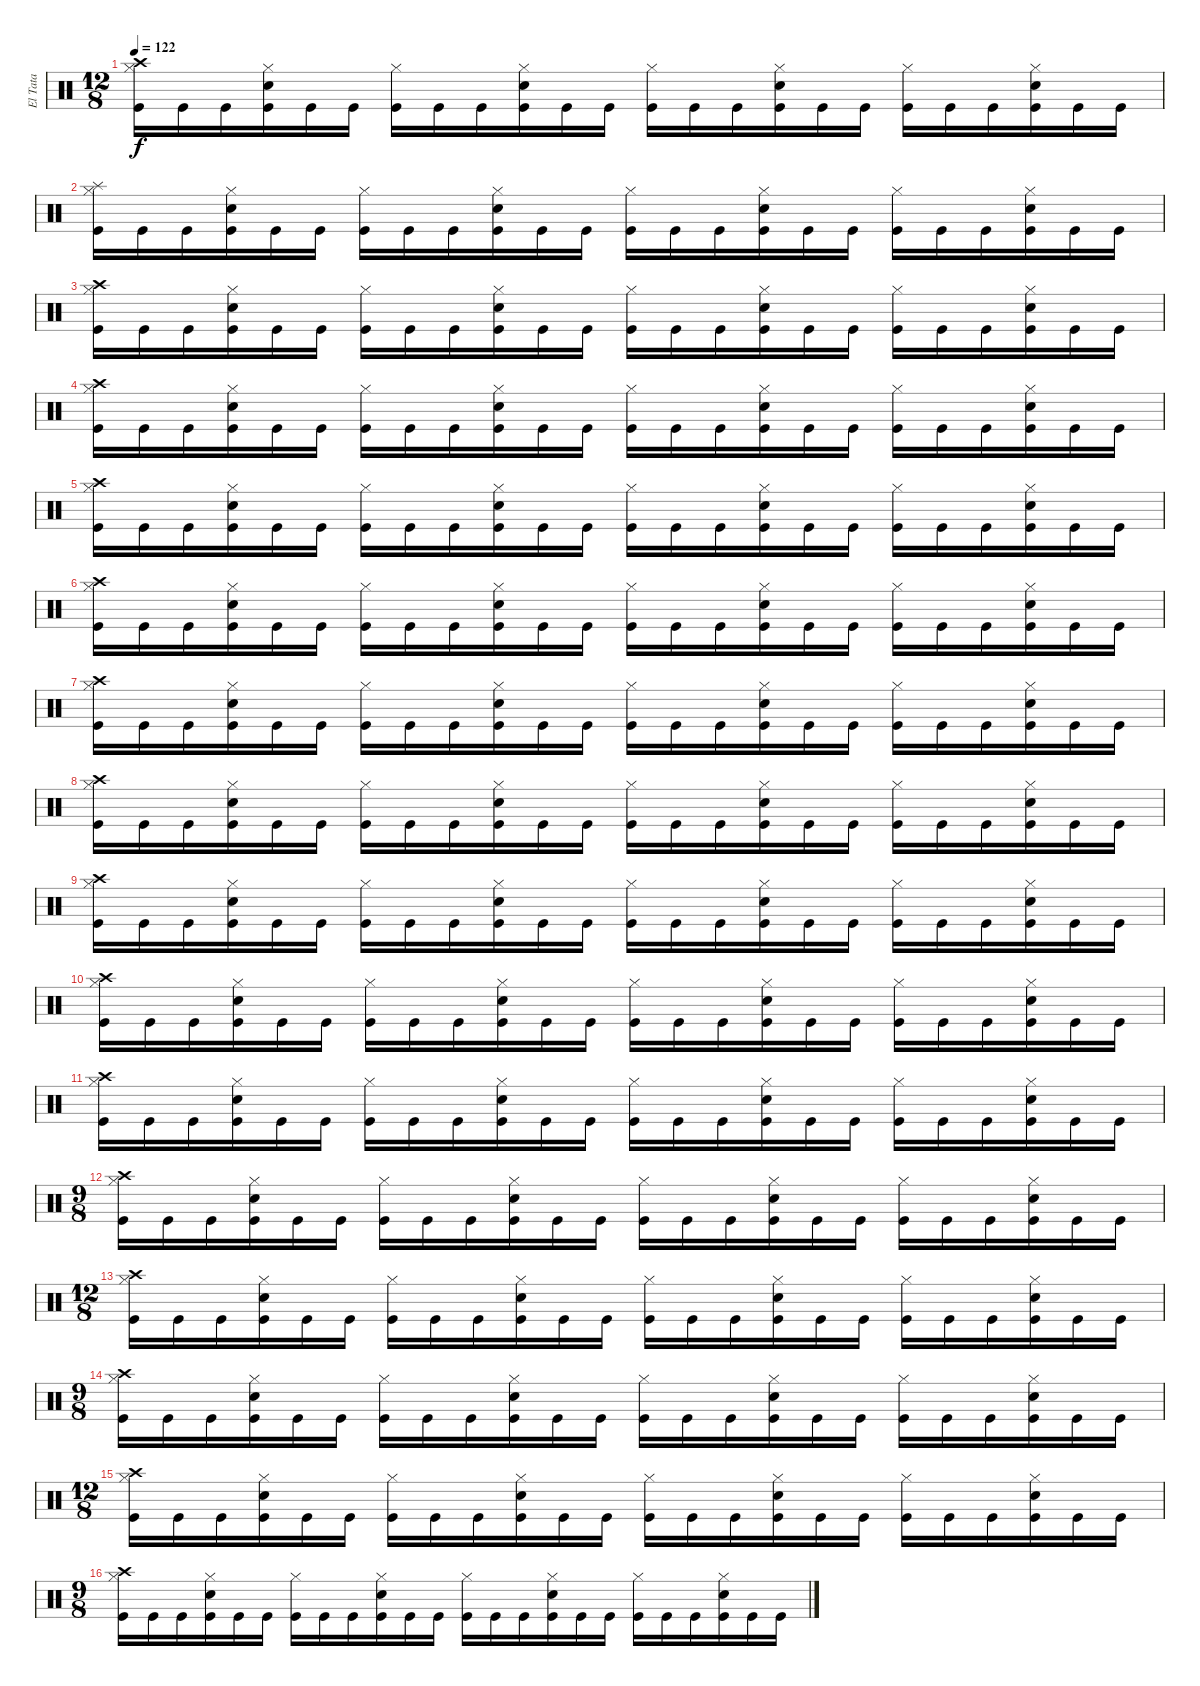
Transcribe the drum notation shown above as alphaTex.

\track ("El Tata" "El Tata") {instrument percussion}
\staff {score}
\articulation defaults
\ts (12 8)
\tempo 122
\clef neutral
\ks c
("Kick (hit)" "Hi-Hat (closed)" "Crash high (hit)").16{dy f} "Kick (hit)".16 "Kick (hit)".16 ("Kick (hit)" "Hi-Hat (closed)" "Electric Snare (hit)").16 "Kick (hit)".16 "Kick (hit)".16 ("Kick (hit)" "Hi-Hat (closed)").16 "Kick (hit)".16 "Kick (hit)".16 ("Kick (hit)" "Hi-Hat (closed)" "Electric Snare (hit)").16 "Kick (hit)".16 "Kick (hit)".16 ("Kick (hit)" "Hi-Hat (closed)").16 "Kick (hit)".16 "Kick (hit)".16 ("Kick (hit)" "Hi-Hat (closed)" "Electric Snare (hit)").16 "Kick (hit)".16 "Kick (hit)".16 ("Kick (hit)" "Hi-Hat (closed)").16 "Kick (hit)".16 "Kick (hit)".16 ("Kick (hit)" "Hi-Hat (closed)" "Electric Snare (hit)").16 "Kick (hit)".16 "Kick (hit)".16 |
("Kick (hit)" "Hi-Hat (closed)" "Splash (hit)").16 "Kick (hit)".16 "Kick (hit)".16 ("Kick (hit)" "Hi-Hat (closed)" "Electric Snare (hit)").16 "Kick (hit)".16 "Kick (hit)".16 ("Kick (hit)" "Hi-Hat (closed)").16 "Kick (hit)".16 "Kick (hit)".16 ("Kick (hit)" "Hi-Hat (closed)" "Electric Snare (hit)").16 "Kick (hit)".16 "Kick (hit)".16 ("Kick (hit)" "Hi-Hat (closed)").16 "Kick (hit)".16 "Kick (hit)".16 ("Kick (hit)" "Hi-Hat (closed)" "Electric Snare (hit)").16 "Kick (hit)".16 "Kick (hit)".16 ("Kick (hit)" "Hi-Hat (closed)").16 "Kick (hit)".16 "Kick (hit)".16 ("Kick (hit)" "Hi-Hat (closed)" "Electric Snare (hit)").16 "Kick (hit)".16 "Kick (hit)".16 |
("Kick (hit)" "Hi-Hat (closed)" "Crash high (hit)").16 "Kick (hit)".16 "Kick (hit)".16 ("Kick (hit)" "Hi-Hat (closed)" "Electric Snare (hit)").16 "Kick (hit)".16 "Kick (hit)".16 ("Kick (hit)" "Hi-Hat (closed)").16 "Kick (hit)".16 "Kick (hit)".16 ("Kick (hit)" "Hi-Hat (closed)" "Electric Snare (hit)").16 "Kick (hit)".16 "Kick (hit)".16 ("Kick (hit)" "Hi-Hat (closed)").16 "Kick (hit)".16 "Kick (hit)".16 ("Kick (hit)" "Hi-Hat (closed)" "Electric Snare (hit)").16 "Kick (hit)".16 "Kick (hit)".16 ("Kick (hit)" "Hi-Hat (closed)").16 "Kick (hit)".16 "Kick (hit)".16 ("Kick (hit)" "Hi-Hat (closed)" "Electric Snare (hit)").16 "Kick (hit)".16 "Kick (hit)".16 |
("Kick (hit)" "Hi-Hat (closed)" "Crash high (hit)").16 "Kick (hit)".16 "Kick (hit)".16 ("Kick (hit)" "Hi-Hat (closed)" "Electric Snare (hit)").16 "Kick (hit)".16 "Kick (hit)".16 ("Kick (hit)" "Hi-Hat (closed)").16 "Kick (hit)".16 "Kick (hit)".16 ("Kick (hit)" "Hi-Hat (closed)" "Electric Snare (hit)").16 "Kick (hit)".16 "Kick (hit)".16 ("Kick (hit)" "Hi-Hat (closed)").16 "Kick (hit)".16 "Kick (hit)".16 ("Kick (hit)" "Hi-Hat (closed)" "Electric Snare (hit)").16 "Kick (hit)".16 "Kick (hit)".16 ("Kick (hit)" "Hi-Hat (closed)").16 "Kick (hit)".16 "Kick (hit)".16 ("Kick (hit)" "Hi-Hat (closed)" "Electric Snare (hit)").16 "Kick (hit)".16 "Kick (hit)".16 |
("Kick (hit)" "Hi-Hat (closed)" "Crash high (hit)").16 "Kick (hit)".16 "Kick (hit)".16 ("Kick (hit)" "Hi-Hat (closed)" "Electric Snare (hit)").16 "Kick (hit)".16 "Kick (hit)".16 ("Kick (hit)" "Hi-Hat (closed)").16 "Kick (hit)".16 "Kick (hit)".16 ("Kick (hit)" "Hi-Hat (closed)" "Electric Snare (hit)").16 "Kick (hit)".16 "Kick (hit)".16 ("Kick (hit)" "Hi-Hat (closed)").16 "Kick (hit)".16 "Kick (hit)".16 ("Kick (hit)" "Hi-Hat (closed)" "Electric Snare (hit)").16 "Kick (hit)".16 "Kick (hit)".16 ("Kick (hit)" "Hi-Hat (closed)").16 "Kick (hit)".16 "Kick (hit)".16 ("Kick (hit)" "Hi-Hat (closed)" "Electric Snare (hit)").16 "Kick (hit)".16 "Kick (hit)".16 |
("Kick (hit)" "Hi-Hat (closed)" "Crash high (hit)").16 "Kick (hit)".16 "Kick (hit)".16 ("Kick (hit)" "Hi-Hat (closed)" "Electric Snare (hit)").16 "Kick (hit)".16 "Kick (hit)".16 ("Kick (hit)" "Hi-Hat (closed)").16 "Kick (hit)".16 "Kick (hit)".16 ("Kick (hit)" "Hi-Hat (closed)" "Electric Snare (hit)").16 "Kick (hit)".16 "Kick (hit)".16 ("Kick (hit)" "Hi-Hat (closed)").16 "Kick (hit)".16 "Kick (hit)".16 ("Kick (hit)" "Hi-Hat (closed)" "Electric Snare (hit)").16 "Kick (hit)".16 "Kick (hit)".16 ("Kick (hit)" "Hi-Hat (closed)").16 "Kick (hit)".16 "Kick (hit)".16 ("Kick (hit)" "Hi-Hat (closed)" "Electric Snare (hit)").16 "Kick (hit)".16 "Kick (hit)".16 |
("Kick (hit)" "Hi-Hat (closed)" "Crash high (hit)").16 "Kick (hit)".16 "Kick (hit)".16 ("Kick (hit)" "Hi-Hat (closed)" "Electric Snare (hit)").16 "Kick (hit)".16 "Kick (hit)".16 ("Kick (hit)" "Hi-Hat (closed)").16 "Kick (hit)".16 "Kick (hit)".16 ("Kick (hit)" "Hi-Hat (closed)" "Electric Snare (hit)").16 "Kick (hit)".16 "Kick (hit)".16 ("Kick (hit)" "Hi-Hat (closed)").16 "Kick (hit)".16 "Kick (hit)".16 ("Kick (hit)" "Hi-Hat (closed)" "Electric Snare (hit)").16 "Kick (hit)".16 "Kick (hit)".16 ("Kick (hit)" "Hi-Hat (closed)").16 "Kick (hit)".16 "Kick (hit)".16 ("Kick (hit)" "Hi-Hat (closed)" "Electric Snare (hit)").16 "Kick (hit)".16 "Kick (hit)".16 |
("Kick (hit)" "Hi-Hat (closed)" "Crash high (hit)").16 "Kick (hit)".16 "Kick (hit)".16 ("Kick (hit)" "Hi-Hat (closed)" "Electric Snare (hit)").16 "Kick (hit)".16 "Kick (hit)".16 ("Kick (hit)" "Hi-Hat (closed)").16 "Kick (hit)".16 "Kick (hit)".16 ("Kick (hit)" "Hi-Hat (closed)" "Electric Snare (hit)").16 "Kick (hit)".16 "Kick (hit)".16 ("Kick (hit)" "Hi-Hat (closed)").16 "Kick (hit)".16 "Kick (hit)".16 ("Kick (hit)" "Hi-Hat (closed)" "Electric Snare (hit)").16 "Kick (hit)".16 "Kick (hit)".16 ("Kick (hit)" "Hi-Hat (closed)").16 "Kick (hit)".16 "Kick (hit)".16 ("Kick (hit)" "Hi-Hat (closed)" "Electric Snare (hit)").16 "Kick (hit)".16 "Kick (hit)".16 |
("Kick (hit)" "Hi-Hat (closed)" "Crash high (hit)").16 "Kick (hit)".16 "Kick (hit)".16 ("Kick (hit)" "Hi-Hat (closed)" "Electric Snare (hit)").16 "Kick (hit)".16 "Kick (hit)".16 ("Kick (hit)" "Hi-Hat (closed)").16 "Kick (hit)".16 "Kick (hit)".16 ("Kick (hit)" "Hi-Hat (closed)" "Electric Snare (hit)").16 "Kick (hit)".16 "Kick (hit)".16 ("Kick (hit)" "Hi-Hat (closed)").16 "Kick (hit)".16 "Kick (hit)".16 ("Kick (hit)" "Hi-Hat (closed)" "Electric Snare (hit)").16 "Kick (hit)".16 "Kick (hit)".16 ("Kick (hit)" "Hi-Hat (closed)").16 "Kick (hit)".16 "Kick (hit)".16 ("Kick (hit)" "Hi-Hat (closed)" "Electric Snare (hit)").16 "Kick (hit)".16 "Kick (hit)".16 |
("Kick (hit)" "Hi-Hat (closed)" "Crash high (hit)").16 "Kick (hit)".16 "Kick (hit)".16 ("Kick (hit)" "Hi-Hat (closed)" "Electric Snare (hit)").16 "Kick (hit)".16 "Kick (hit)".16 ("Kick (hit)" "Hi-Hat (closed)").16 "Kick (hit)".16 "Kick (hit)".16 ("Kick (hit)" "Hi-Hat (closed)" "Electric Snare (hit)").16 "Kick (hit)".16 "Kick (hit)".16 ("Kick (hit)" "Hi-Hat (closed)").16 "Kick (hit)".16 "Kick (hit)".16 ("Kick (hit)" "Hi-Hat (closed)" "Electric Snare (hit)").16 "Kick (hit)".16 "Kick (hit)".16 ("Kick (hit)" "Hi-Hat (closed)").16 "Kick (hit)".16 "Kick (hit)".16 ("Kick (hit)" "Hi-Hat (closed)" "Electric Snare (hit)").16 "Kick (hit)".16 "Kick (hit)".16 |
("Kick (hit)" "Hi-Hat (closed)" "Crash high (hit)").16 "Kick (hit)".16 "Kick (hit)".16 ("Kick (hit)" "Hi-Hat (closed)" "Electric Snare (hit)").16 "Kick (hit)".16 "Kick (hit)".16 ("Kick (hit)" "Hi-Hat (closed)").16 "Kick (hit)".16 "Kick (hit)".16 ("Kick (hit)" "Hi-Hat (closed)" "Electric Snare (hit)").16 "Kick (hit)".16 "Kick (hit)".16 ("Kick (hit)" "Hi-Hat (closed)").16 "Kick (hit)".16 "Kick (hit)".16 ("Kick (hit)" "Hi-Hat (closed)" "Electric Snare (hit)").16 "Kick (hit)".16 "Kick (hit)".16 ("Kick (hit)" "Hi-Hat (closed)").16 "Kick (hit)".16 "Kick (hit)".16 ("Kick (hit)" "Hi-Hat (closed)" "Electric Snare (hit)").16 "Kick (hit)".16 "Kick (hit)".16 |
\ts (9 8)
("Kick (hit)" "Hi-Hat (closed)" "Crash high (hit)").16 "Kick (hit)".16 "Kick (hit)".16 ("Kick (hit)" "Hi-Hat (closed)" "Electric Snare (hit)").16 "Kick (hit)".16 "Kick (hit)".16 ("Kick (hit)" "Hi-Hat (closed)").16 "Kick (hit)".16 "Kick (hit)".16 ("Kick (hit)" "Hi-Hat (closed)" "Electric Snare (hit)").16 "Kick (hit)".16 "Kick (hit)".16 ("Kick (hit)" "Hi-Hat (closed)").16 "Kick (hit)".16 "Kick (hit)".16 ("Kick (hit)" "Hi-Hat (closed)" "Electric Snare (hit)").16 "Kick (hit)".16 "Kick (hit)".16 ("Kick (hit)" "Hi-Hat (closed)").16 "Kick (hit)".16 "Kick (hit)".16 ("Kick (hit)" "Hi-Hat (closed)" "Electric Snare (hit)").16 "Kick (hit)".16 "Kick (hit)".16 |
\ts (12 8)
("Kick (hit)" "Hi-Hat (closed)" "Crash high (hit)").16 "Kick (hit)".16 "Kick (hit)".16 ("Kick (hit)" "Hi-Hat (closed)" "Electric Snare (hit)").16 "Kick (hit)".16 "Kick (hit)".16 ("Kick (hit)" "Hi-Hat (closed)").16 "Kick (hit)".16 "Kick (hit)".16 ("Kick (hit)" "Hi-Hat (closed)" "Electric Snare (hit)").16 "Kick (hit)".16 "Kick (hit)".16 ("Kick (hit)" "Hi-Hat (closed)").16 "Kick (hit)".16 "Kick (hit)".16 ("Kick (hit)" "Hi-Hat (closed)" "Electric Snare (hit)").16 "Kick (hit)".16 "Kick (hit)".16 ("Kick (hit)" "Hi-Hat (closed)").16 "Kick (hit)".16 "Kick (hit)".16 ("Kick (hit)" "Hi-Hat (closed)" "Electric Snare (hit)").16 "Kick (hit)".16 "Kick (hit)".16 |
\ts (9 8)
("Kick (hit)" "Hi-Hat (closed)" "Crash high (hit)").16 "Kick (hit)".16 "Kick (hit)".16 ("Kick (hit)" "Hi-Hat (closed)" "Electric Snare (hit)").16 "Kick (hit)".16 "Kick (hit)".16 ("Kick (hit)" "Hi-Hat (closed)").16 "Kick (hit)".16 "Kick (hit)".16 ("Kick (hit)" "Hi-Hat (closed)" "Electric Snare (hit)").16 "Kick (hit)".16 "Kick (hit)".16 ("Kick (hit)" "Hi-Hat (closed)").16 "Kick (hit)".16 "Kick (hit)".16 ("Kick (hit)" "Hi-Hat (closed)" "Electric Snare (hit)").16 "Kick (hit)".16 "Kick (hit)".16 ("Kick (hit)" "Hi-Hat (closed)").16 "Kick (hit)".16 "Kick (hit)".16 ("Kick (hit)" "Hi-Hat (closed)" "Electric Snare (hit)").16 "Kick (hit)".16 "Kick (hit)".16 |
\ts (12 8)
("Kick (hit)" "Hi-Hat (closed)" "Crash high (hit)").16 "Kick (hit)".16 "Kick (hit)".16 ("Kick (hit)" "Hi-Hat (closed)" "Electric Snare (hit)").16 "Kick (hit)".16 "Kick (hit)".16 ("Kick (hit)" "Hi-Hat (closed)").16 "Kick (hit)".16 "Kick (hit)".16 ("Kick (hit)" "Hi-Hat (closed)" "Electric Snare (hit)").16 "Kick (hit)".16 "Kick (hit)".16 ("Kick (hit)" "Hi-Hat (closed)").16 "Kick (hit)".16 "Kick (hit)".16 ("Kick (hit)" "Hi-Hat (closed)" "Electric Snare (hit)").16 "Kick (hit)".16 "Kick (hit)".16 ("Kick (hit)" "Hi-Hat (closed)").16 "Kick (hit)".16 "Kick (hit)".16 ("Kick (hit)" "Hi-Hat (closed)" "Electric Snare (hit)").16 "Kick (hit)".16 "Kick (hit)".16 |
\ts (9 8)
("Kick (hit)" "Hi-Hat (closed)" "Crash high (hit)").16 "Kick (hit)".16 "Kick (hit)".16 ("Kick (hit)" "Hi-Hat (closed)" "Electric Snare (hit)").16 "Kick (hit)".16 "Kick (hit)".16 ("Kick (hit)" "Hi-Hat (closed)").16 "Kick (hit)".16 "Kick (hit)".16 ("Kick (hit)" "Hi-Hat (closed)" "Electric Snare (hit)").16 "Kick (hit)".16 "Kick (hit)".16 ("Kick (hit)" "Hi-Hat (closed)").16 "Kick (hit)".16 "Kick (hit)".16 ("Kick (hit)" "Hi-Hat (closed)" "Electric Snare (hit)").16 "Kick (hit)".16 "Kick (hit)".16 ("Kick (hit)" "Hi-Hat (closed)").16 "Kick (hit)".16 "Kick (hit)".16 ("Kick (hit)" "Hi-Hat (closed)" "Electric Snare (hit)").16 "Kick (hit)".16 "Kick (hit)".16
